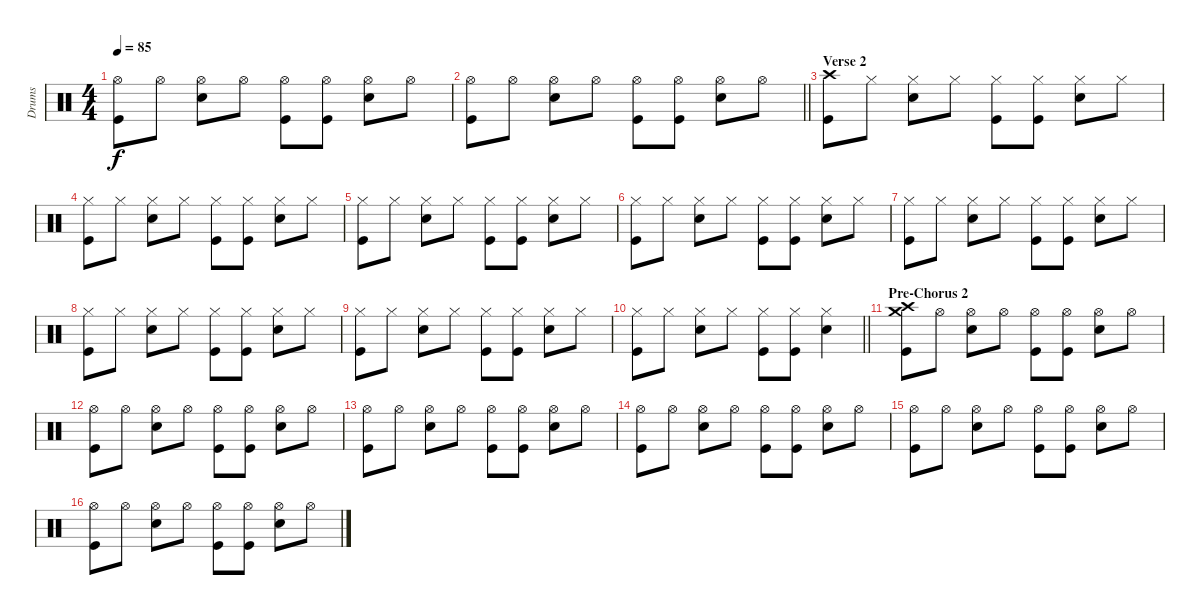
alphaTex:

\track ("Drums" "Drums") {instrument percussion}
\staff {score}
\articulation defaults
\ts (4 4)
\tempo 85
\clef neutral
\ks c
("Hi-Hat (open)" "Kick (hit)").8{dy f} "Hi-Hat (open)".8 ("Hi-Hat (open)" "Snare (hit) 2").8 "Hi-Hat (open)".8 ("Hi-Hat (open)" "Kick (hit)").8 ("Hi-Hat (open)" "Kick (hit)").8 ("Hi-Hat (open)" "Snare (hit) 2").8 "Hi-Hat (open)".8 |
\barLineRight lightlight
("Hi-Hat (open)" "Kick (hit)").8 "Hi-Hat (open)".8 ("Hi-Hat (open)" "Snare (hit) 2").8 "Hi-Hat (open)".8 ("Hi-Hat (open)" "Kick (hit)").8 ("Hi-Hat (open)" "Kick (hit)").8 ("Hi-Hat (open)" "Snare (hit) 2").8 "Hi-Hat (open)".8 |
\section ("" "Verse 2")
("Crash high (hit)" "Kick (hit)").8 "Hi-Hat (closed)".8 ("Hi-Hat (closed)" "Snare (hit) 2").8 "Hi-Hat (closed)".8 ("Hi-Hat (closed)" "Kick (hit)").8 ("Hi-Hat (closed)" "Kick (hit)").8 ("Hi-Hat (closed)" "Snare (hit) 2").8 "Hi-Hat (closed)".8 |
("Hi-Hat (closed)" "Kick (hit)").8 "Hi-Hat (closed)".8 ("Hi-Hat (closed)" "Snare (hit) 2").8 "Hi-Hat (closed)".8 ("Hi-Hat (closed)" "Kick (hit)").8 ("Hi-Hat (closed)" "Kick (hit)").8 ("Hi-Hat (closed)" "Snare (hit) 2").8 "Hi-Hat (closed)".8 |
("Hi-Hat (closed)" "Kick (hit)").8 "Hi-Hat (closed)".8 ("Hi-Hat (closed)" "Snare (hit) 2").8 "Hi-Hat (closed)".8 ("Hi-Hat (closed)" "Kick (hit)").8 ("Hi-Hat (closed)" "Kick (hit)").8 ("Hi-Hat (closed)" "Snare (hit) 2").8 "Hi-Hat (closed)".8 |
("Hi-Hat (closed)" "Kick (hit)").8 "Hi-Hat (closed)".8 ("Hi-Hat (closed)" "Snare (hit) 2").8 "Hi-Hat (closed)".8 ("Hi-Hat (closed)" "Kick (hit)").8 ("Hi-Hat (closed)" "Kick (hit)").8 ("Hi-Hat (closed)" "Snare (hit) 2").8 "Hi-Hat (closed)".8 |
("Hi-Hat (closed)" "Kick (hit)").8 "Hi-Hat (closed)".8 ("Hi-Hat (closed)" "Snare (hit) 2").8 "Hi-Hat (closed)".8 ("Hi-Hat (closed)" "Kick (hit)").8 ("Hi-Hat (closed)" "Kick (hit)").8 ("Hi-Hat (closed)" "Snare (hit) 2").8 "Hi-Hat (closed)".8 |
("Hi-Hat (closed)" "Kick (hit)").8 "Hi-Hat (closed)".8 ("Hi-Hat (closed)" "Snare (hit) 2").8 "Hi-Hat (closed)".8 ("Hi-Hat (closed)" "Kick (hit)").8 ("Hi-Hat (closed)" "Kick (hit)").8 ("Hi-Hat (closed)" "Snare (hit) 2").8 "Hi-Hat (closed)".8 |
("Hi-Hat (closed)" "Kick (hit)").8 "Hi-Hat (closed)".8 ("Hi-Hat (closed)" "Snare (hit) 2").8 "Hi-Hat (closed)".8 ("Hi-Hat (closed)" "Kick (hit)").8 ("Hi-Hat (closed)" "Kick (hit)").8 ("Hi-Hat (closed)" "Snare (hit) 2").8 "Hi-Hat (closed)".8 |
\barLineRight lightlight
("Hi-Hat (closed)" "Kick (hit)").8 "Hi-Hat (closed)".8 ("Hi-Hat (closed)" "Snare (hit) 2").8 "Hi-Hat (closed)".8 ("Hi-Hat (closed)" "Kick (hit)").8 ("Hi-Hat (closed)" "Kick (hit)").8 ("Hi-Hat (closed)" "Snare (hit) 2").4 |
\section ("" "Pre-Chorus 2")
("Crash high (hit)" "Crash medium (hit)" "Kick (hit)").8 "Hi-Hat (open)".8 ("Hi-Hat (open)" "Snare (hit) 2").8 "Hi-Hat (open)".8 ("Hi-Hat (open)" "Kick (hit)").8 ("Hi-Hat (open)" "Kick (hit)").8 ("Hi-Hat (open)" "Snare (hit) 2").8 "Hi-Hat (open)".8 |
("Hi-Hat (open)" "Kick (hit)").8 "Hi-Hat (open)".8 ("Hi-Hat (open)" "Snare (hit) 2").8 "Hi-Hat (open)".8 ("Hi-Hat (open)" "Kick (hit)").8 ("Hi-Hat (open)" "Kick (hit)").8 ("Hi-Hat (open)" "Snare (hit) 2").8 "Hi-Hat (open)".8 |
("Hi-Hat (open)" "Kick (hit)").8 "Hi-Hat (open)".8 ("Hi-Hat (open)" "Snare (hit) 2").8 "Hi-Hat (open)".8 ("Hi-Hat (open)" "Kick (hit)").8 ("Hi-Hat (open)" "Kick (hit)").8 ("Hi-Hat (open)" "Snare (hit) 2").8 "Hi-Hat (open)".8 |
("Hi-Hat (open)" "Kick (hit)").8 "Hi-Hat (open)".8 ("Hi-Hat (open)" "Snare (hit) 2").8 "Hi-Hat (open)".8 ("Hi-Hat (open)" "Kick (hit)").8 ("Hi-Hat (open)" "Kick (hit)").8 ("Hi-Hat (open)" "Snare (hit) 2").8 "Hi-Hat (open)".8 |
("Hi-Hat (open)" "Kick (hit)").8 "Hi-Hat (open)".8 ("Hi-Hat (open)" "Snare (hit) 2").8 "Hi-Hat (open)".8 ("Hi-Hat (open)" "Kick (hit)").8 ("Hi-Hat (open)" "Kick (hit)").8 ("Hi-Hat (open)" "Snare (hit) 2").8 "Hi-Hat (open)".8 |
("Hi-Hat (open)" "Kick (hit)").8 "Hi-Hat (open)".8 ("Hi-Hat (open)" "Snare (hit) 2").8 "Hi-Hat (open)".8 ("Hi-Hat (open)" "Kick (hit)").8 ("Hi-Hat (open)" "Kick (hit)").8 ("Hi-Hat (open)" "Snare (hit) 2").8 "Hi-Hat (open)".8
